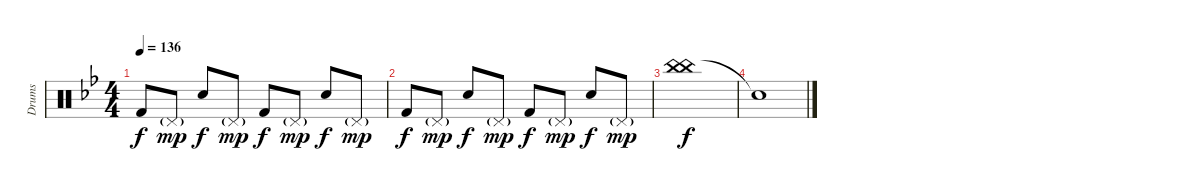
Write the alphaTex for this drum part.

\track ("Drums" "Drums") {instrument percussion}
\staff {score}
\articulation defaults
\ts (4 4)
\tempo 136
\clef neutral
\ks gminor "Kick (hit) 2".8{dy f} "Pedal Hi-Hat (hit)"{g}.8{dy mp} "Hand Clap (hit)".8{dy f} "Pedal Hi-Hat (hit)"{g}.8{dy mp} "Kick (hit) 2".8{dy f} "Pedal Hi-Hat (hit)"{g}.8{dy mp} "Hand Clap (hit)".8{dy f} "Pedal Hi-Hat (hit)"{g}.8{dy mp}
|
"Kick (hit) 2".8{dy f} "Pedal Hi-Hat (hit)"{g}.8{dy mp} "Hand Clap (hit)".8{dy f} "Pedal Hi-Hat (hit)"{g}.8{dy mp} "Kick (hit) 2".8{dy f} "Pedal Hi-Hat (hit)"{g}.8{dy mp} "Hand Clap (hit)".8{dy f} "Pedal Hi-Hat (hit)"{g}.8{dy mp} |
("China (hit)" "China (hit)").1{dy f} |
"Snare (hit)"{t}.1
